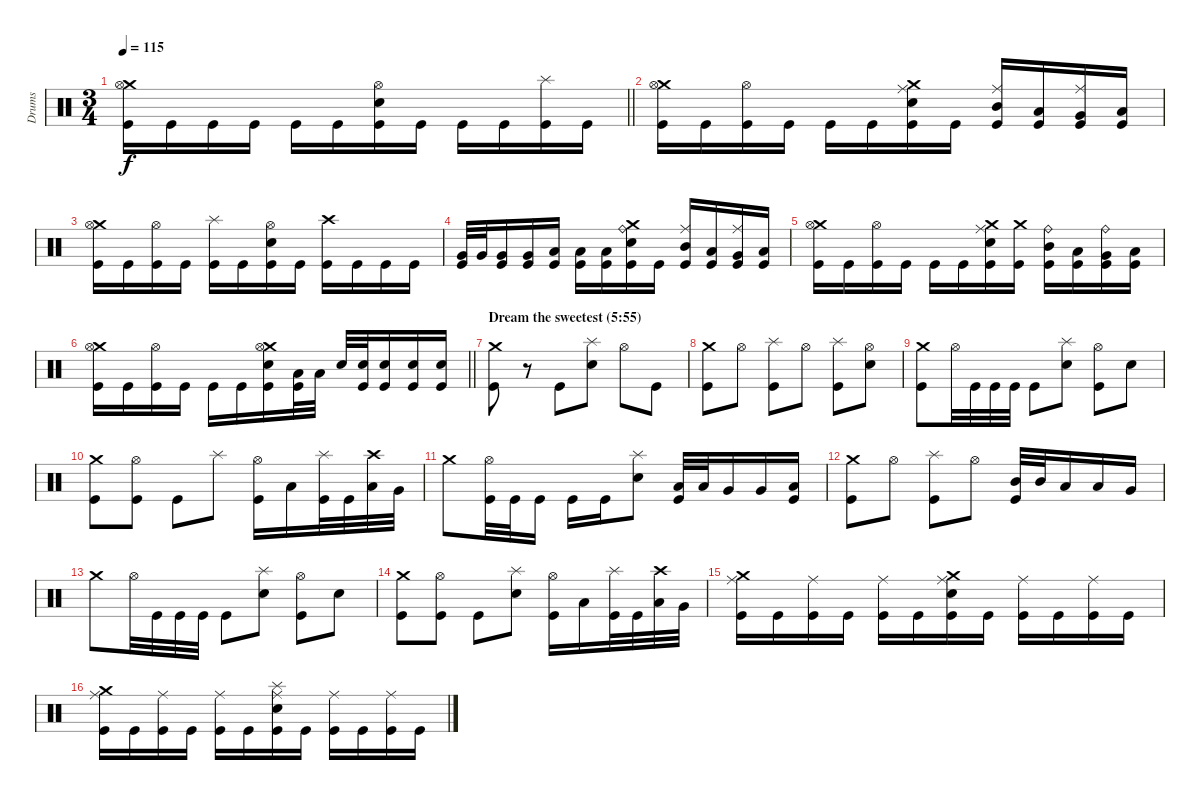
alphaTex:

\track ("Drums" "Drums") {instrument percussion}
\staff {score}
\articulation defaults
\ts (3 4)
\tempo 115
\clef neutral
\barLineRight lightlight
\ks c
("Crash medium (hit)" "Hi-Hat (open)" "Kick (hit)").16{dy f} "Kick (hit)".16 "Kick (hit)".16 "Kick (hit)".16 "Kick (hit)".16 "Kick (hit)".16 ("Hi-Hat (open)" "Electric Snare (hit)" "Kick (hit)").16 "Kick (hit)".16 "Kick (hit)".16 "Kick (hit)".16 ("Splash (hit)" "Kick (hit)").16 "Kick (hit)".16 |
("Crash medium (hit)" "Hi-Hat (open)" "Kick (hit)").16 "Kick (hit)".16 ("Hi-Hat (open)" "Kick (hit)").16 "Kick (hit)".16 "Kick (hit)".16 "Kick (hit)".16 ("Crash medium (hit)" "Ride (middle)" "Electric Snare (hit)" "Kick (hit)").16 "Kick (hit)".16 ("Mid Tom (hit)" "Ride (middle)" "Kick (hit)").16 ("Low Tom (hit)" "Kick (hit)").16 ("Very Low Tom (hit)" "Ride (middle)" "Kick (hit)").16 ("Low Floor Tom (hit)" "Kick (hit)").16 |
("Crash medium (hit)" "Hi-Hat (open)" "Kick (hit)").16 "Kick (hit)".16 ("Hi-Hat (open)" "Kick (hit)").16 "Kick (hit)".16 ("Splash (hit)" "Kick (hit)").16 "Kick (hit)".16 ("Hi-Hat (open)" "Electric Snare (hit)" "Kick (hit)").16 "Kick (hit)".16 ("Crash high (hit)" "Kick (hit)").16 "Kick (hit)".16 "Kick (hit)".16 "Kick (hit)".16 |
("Very Low Tom (hit)" "Kick (hit)").32 "Very Low Tom (hit)".32 ("Very Low Tom (hit)" "Kick (hit)").16 ("Very Low Tom (hit)" "Kick (hit)").16 ("Low Floor Tom (hit)" "Kick (hit)").16 ("Low Floor Tom (hit)" "Kick (hit)").16 ("Low Floor Tom (hit)" "Kick (hit)").16 ("Crash medium (hit)" "Ride (bell)" "Electric Snare (hit)" "Kick (hit)").16 "Kick (hit)".16 ("Mid Tom (hit)" "Ride (middle)" "Kick (hit)").16 ("Low Tom (hit)" "Kick (hit)").16 ("Very Low Tom (hit)" "Ride (middle)" "Kick (hit)").16 ("Low Floor Tom (hit)" "Kick (hit)").16 |
("Crash medium (hit)" "Hi-Hat (open)" "Kick (hit)").16 "Kick (hit)".16 ("Hi-Hat (open)" "Kick (hit)").16 "Kick (hit)".16 "Kick (hit)".16 "Kick (hit)".16 ("Crash medium (hit)" "Ride (middle)" "Electric Snare (hit)" "Kick (hit)").16 ("Crash medium (hit)" "Kick (hit)").16 ("Mid Tom (hit)" "Ride (bell)" "Kick (hit)").16 ("Low Tom (hit)" "Kick (hit)").16 ("Very Low Tom (hit)" "Ride (bell)" "Kick (hit)").16 ("Low Floor Tom (hit)" "Kick (hit)").16 |
\barLineRight lightlight
("Crash medium (hit)" "Hi-Hat (open)" "Kick (hit)").16 "Kick (hit)".16 ("Hi-Hat (open)" "Kick (hit)").16 "Kick (hit)".16 "Kick (hit)".16 "Kick (hit)".16 ("Crash medium (hit)" "Hi-Hat (open)" "Electric Snare (hit)" "Kick (hit)").16 ("Low Tom (hit)" "Kick (hit)").32 "Low Tom (hit)".32 "Electric Snare (hit)".32 ("Electric Snare (hit)" "Kick (hit)").32 ("Electric Snare (hit)" "Kick (hit)").16 ("Electric Snare (hit)" "Kick (hit)").16 ("Electric Snare (hit)" "Kick (hit)").16 |
\section ("" "Dream the sweetest (5:55)")
("Crash medium (hit)" "Kick (hit)").8 r.8 "Kick (hit)".8 ("Splash (hit)" "Electric Snare (hit)").8 "Hi-Hat (open)".8 "Kick (hit)".8 |
("Crash medium (hit)" "Kick (hit)").8 "Hi-Hat (open)".8 ("Splash (hit)" "Kick (hit)").8 "Hi-Hat (open)".8 ("Splash (hit)" "Kick (hit)").8 ("Hi-Hat (open)" "Electric Snare (hit)").8 |
("Crash medium (hit)" "Kick (hit)").8 "Hi-Hat (open)".32 "Kick (hit)".32 "Kick (hit)".32 "Kick (hit)".32 "Kick (hit)".8 ("Splash (hit)" "Electric Snare (hit)").8 ("Hi-Hat (open)" "Kick (hit)").8 "Electric Snare (hit)".8 |
("Crash medium (hit)" "Kick (hit)").8 ("Hi-Hat (open)" "Kick (hit)").8 "Kick (hit)".8 "Splash (hit)".8 ("Hi-Hat (open)" "Kick (hit)").16 "Low Floor Tom (hit)".16 ("Splash (hit)" "Kick (hit)").32 "Kick (hit)".32 ("Crash high (hit)" "Low Tom (hit)").32 "Very Low Tom (hit)".32 |
"Crash medium (hit)".8 ("Hi-Hat (open)" "Kick (hit)").32 "Kick (hit)".32 "Kick (hit)".16 "Kick (hit)".16 "Kick (hit)".16 ("Splash (hit)" "Electric Snare (hit)").8 ("Low Tom (hit)" "Kick (hit)").32 "Low Tom (hit)".32 "Very Low Tom (hit)".16 "Very Low Tom (hit)".16 ("Low Floor Tom (hit)" "Kick (hit)").16 |
("Crash medium (hit)" "Kick (hit)").8 "Hi-Hat (open)".8 ("Splash (hit)" "Kick (hit)").8 "Hi-Hat (open)".8 ("Mid Tom (hit)" "Kick (hit)").32 "Mid Tom (hit)".32 "Low Tom (hit)".16 "Low Tom (hit)".16 "Very Low Tom (hit)".16 |
"Crash medium (hit)".8 "Hi-Hat (open)".32 "Kick (hit)".32 "Kick (hit)".32 "Kick (hit)".32 "Kick (hit)".8 ("Splash (hit)" "Electric Snare (hit)").8 ("Hi-Hat (open)" "Kick (hit)").8 "Electric Snare (hit)".8 |
("Crash medium (hit)" "Kick (hit)").8 ("Hi-Hat (open)" "Kick (hit)").8 "Kick (hit)".8 ("Splash (hit)" "Electric Snare (hit)").8 ("Hi-Hat (open)" "Kick (hit)").16 "Low Floor Tom (hit)".16 ("Splash (hit)" "Kick (hit)").32 "Kick (hit)".32 ("Crash high (hit)" "Low Tom (hit)").32 "Very Low Tom (hit)".32 |
("Crash medium (hit)" "Ride (middle)" "Kick (hit)").16 "Kick (hit)".16 ("Ride (middle)" "Kick (hit)").16 "Kick (hit)".16 ("Ride (middle)" "Kick (hit)").16 "Kick (hit)".16 ("Crash medium (hit)" "Ride (middle)" "Electric Snare (hit)" "Kick (hit)").16 "Kick (hit)".16 ("Ride (middle)" "Kick (hit)").16 "Kick (hit)".16 ("Ride (middle)" "Kick (hit)").16 "Kick (hit)".16 |
("Crash medium (hit)" "Ride (middle)" "Kick (hit)").16 "Kick (hit)".16 ("Ride (middle)" "Kick (hit)").16 "Kick (hit)".16 ("Ride (middle)" "Kick (hit)").16 "Kick (hit)".16 ("Splash (hit)" "Ride (middle)" "Electric Snare (hit)" "Kick (hit)").16 "Kick (hit)".16 ("Ride (middle)" "Kick (hit)").16 "Kick (hit)".16 ("Ride (middle)" "Kick (hit)").16 "Kick (hit)".16
